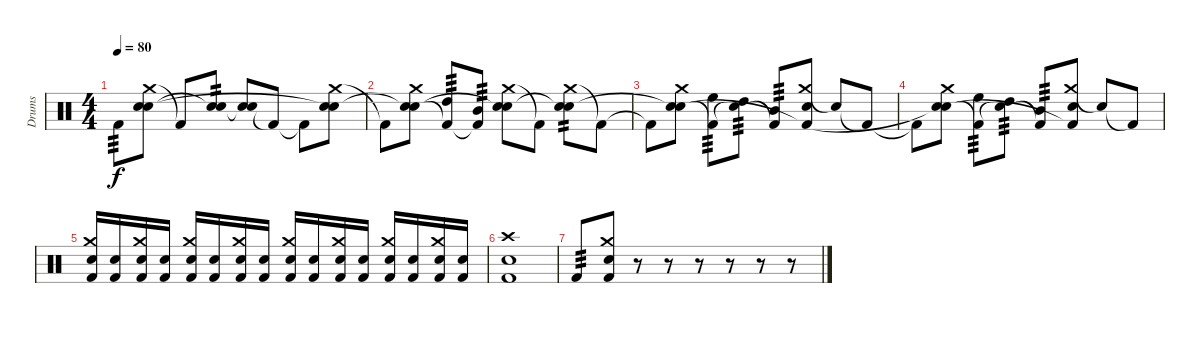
\track ("Drums" "Drums") {instrument percussion}
\staff {score}
\articulation defaults
\ts (4 4)
\tempo 80
\clef neutral
\ks c "Kick (hit) 2".8{tp 3 dy f}
("Crash medium (hit)" "Electric Snare (hit)" "Snare (hit)").8 "Kick (hit) 2"{t}.8 ("Electric Snare (hit)" "Snare (hit)"{t}).8{tp 2} ("Electric Snare (hit)" "Snare (hit)"{t}).8 "Kick (hit) 2"{t}.8 "Kick (hit) 2"{t}.8 ("Crash medium (hit)" "Electric Snare (hit)" "Snare (hit)"{t}).8 |
"Kick (hit) 2"{t}.8 ("Crash medium (hit)" "Electric Snare (hit)" "Snare (hit)"{t}).8 ("High Tom (hit)" "Kick (hit) 2"{t}).8{tp 3} ("Mid Tom (hit)" "Kick (hit) 2"{t}).8{tp 3} ("Crash medium (hit)" "Electric Snare (hit)" "Snare (hit)"{t}).8 "Kick (hit) 2"{t}.8 ("Crash medium (hit)" "Electric Snare (hit)" "Snare (hit)"{t}).8{tp 2} "Kick (hit) 2"{t}.8 |
"Kick (hit) 2"{t}.8 ("Crash medium (hit)" "Electric Snare (hit)" "Snare (hit)"{t}).8 ("High Floor Tom (hit)" "Kick (hit) 2"{t}).8{tp 3} ("High Tom (hit)" "Snare (hit)"{t}).8{tp 3} ("Mid Tom (hit)" "Kick (hit) 2"{t}).8{tp 3} ("Crash medium (hit)" "Electric Snare (hit)" "Kick (hit) 2"{t}).8 "Snare (hit)"{t}.8 "Kick (hit) 2"{t}.8 |
"Kick (hit) 2"{t}.8 ("Crash medium (hit)" "Electric Snare (hit)" "Snare (hit)"{t}).8 ("High Floor Tom (hit)" "Kick (hit) 2"{t}).8{tp 3} ("High Tom (hit)" "Snare (hit)"{t}).8{tp 3} ("Mid Tom (hit)" "Kick (hit) 2"{t}).8{tp 3} ("Crash medium (hit)" "Electric Snare (hit)" "Kick (hit) 2"{t}).8 "Snare (hit)"{t}.8 "Kick (hit) 2"{t}.8 |
("Crash medium (hit)" "Electric Snare (hit)" "Kick (hit) 2").16 ("Electric Snare (hit)" "Kick (hit) 2").16 ("Crash medium (hit)" "Electric Snare (hit)" "Kick (hit) 2").16 ("Electric Snare (hit)" "Kick (hit) 2").16 ("Crash medium (hit)" "Electric Snare (hit)" "Kick (hit) 2").16 ("Electric Snare (hit)" "Kick (hit) 2").16 ("Crash medium (hit)" "Electric Snare (hit)" "Kick (hit) 2").16 ("Electric Snare (hit)" "Kick (hit) 2").16 ("Crash medium (hit)" "Electric Snare (hit)" "Kick (hit) 2").16 ("Electric Snare (hit)" "Kick (hit) 2").16 ("Crash medium (hit)" "Electric Snare (hit)" "Kick (hit) 2").16 ("Electric Snare (hit)" "Kick (hit) 2").16 ("Crash medium (hit)" "Electric Snare (hit)" "Kick (hit) 2").16 ("Electric Snare (hit)" "Kick (hit) 2").16 ("Crash medium (hit)" "Electric Snare (hit)" "Kick (hit) 2").16 ("Electric Snare (hit)" "Kick (hit) 2").16 |
("Crash high (hit)" "Electric Snare (hit)" "Kick (hit) 2").1 |
"Kick (hit) 2".8{tp 3} ("Crash medium (hit)" "Electric Snare (hit)" "Kick (hit) 2").8 r.8 r.8 r.8 r.8 r.8 r.8
